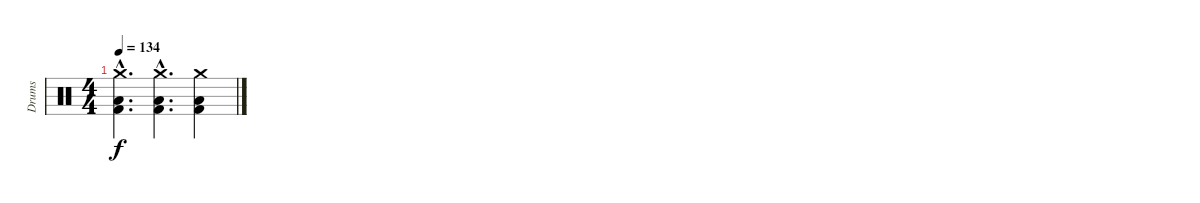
\track ("Drums" "Drums") {instrument percussion}
\staff {score}
\articulation defaults
\ts (4 4)
\tempo 134
\clef neutral
\ks c
("Crash medium (hit)"{hac} "Kick (hit) 2"{hac} "Low Floor Tom (hit)"{hac}).4{d dy f} ("Crash medium (hit)"{hac} "Kick (hit) 2"{hac} "Low Floor Tom (hit)"{hac}).4{d} ("Crash medium (hit)" "Kick (hit) 2" "Low Floor Tom (hit)").4
